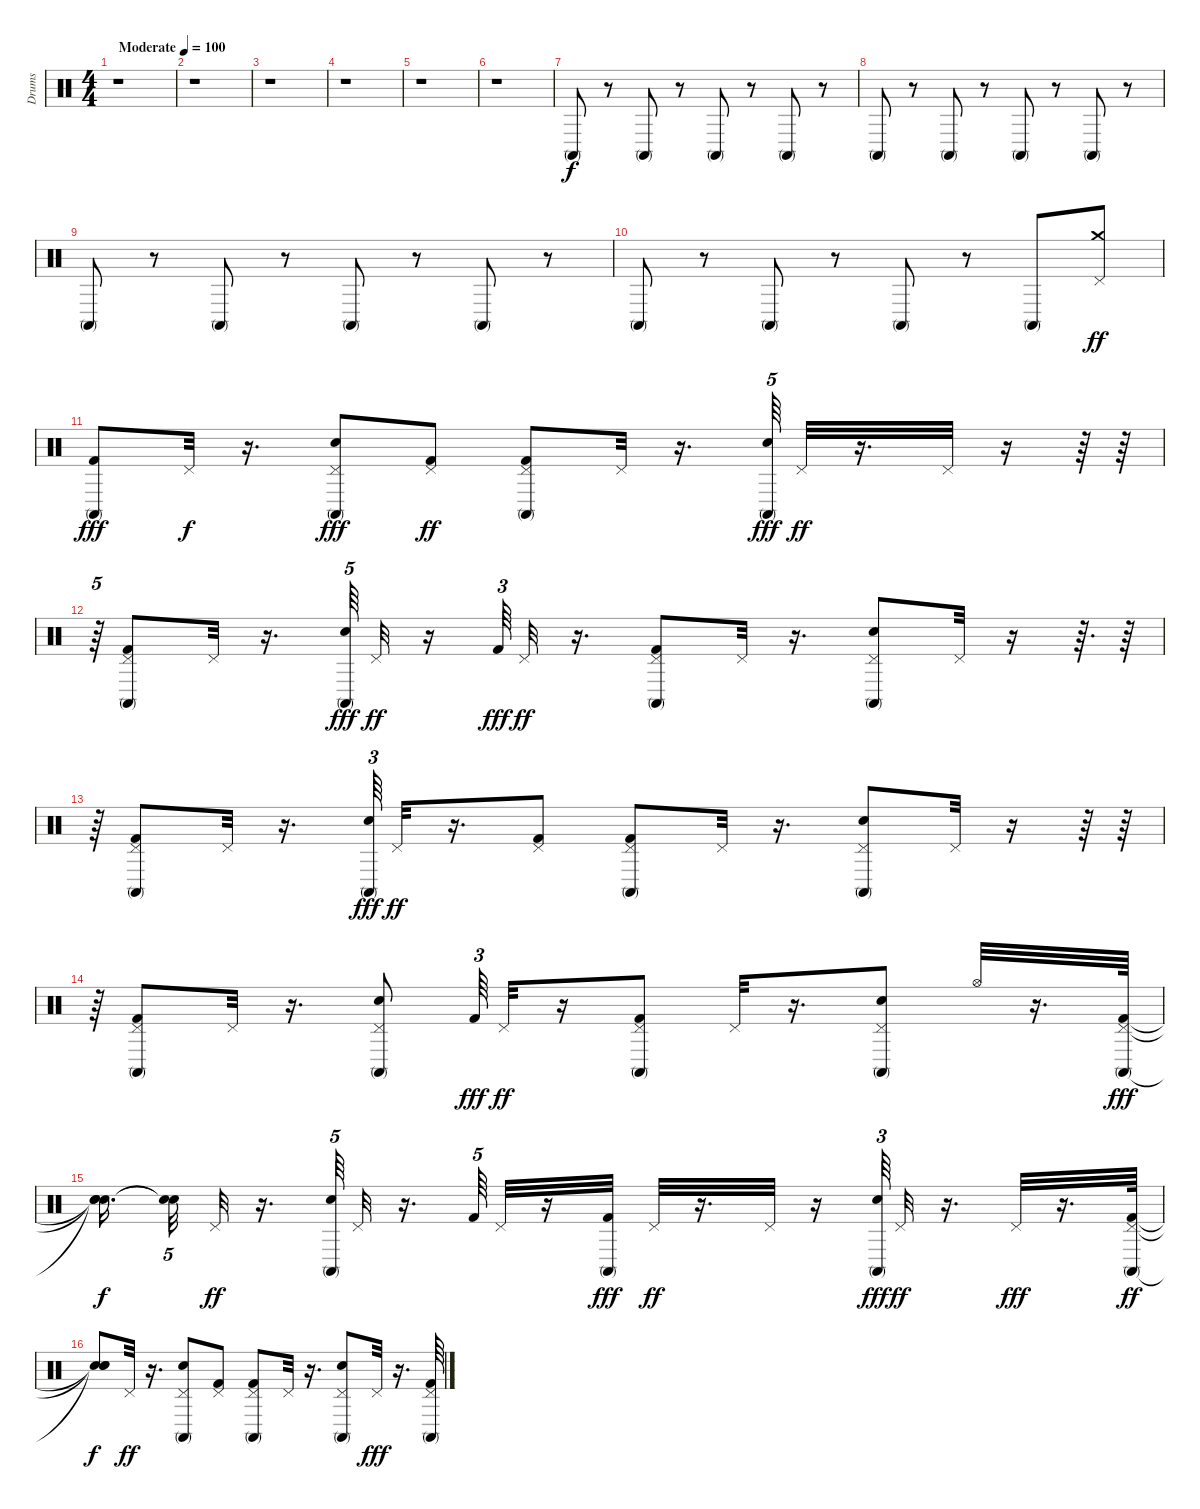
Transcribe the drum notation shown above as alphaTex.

\track ("Drums" "Drums") {instrument percussion}
\staff {score}
\articulation defaults
\ts (4 4)
\tempo (100 "Moderate")
\clef neutral
\ks c
r.1{dy f} |
r.1 |
r.1 |
r.1 |
r.1 |
r.1 |
"Conga high (mute)".8 r.8 "Conga high (mute)".8 r.8 "Conga high (mute)".8 r.8 "Conga high (mute)".8 r.8 |
"Conga high (mute)".8 r.8 "Conga high (mute)".8 r.8 "Conga high (mute)".8 r.8 "Conga high (mute)".8 r.8 |
"Conga high (mute)".8 r.8 "Conga high (mute)".8 r.8 "Conga high (mute)".8 r.8 "Conga high (mute)".8 r.8 |
"Conga high (mute)".8 r.8 "Conga high (mute)".8 r.8 "Conga high (mute)".8 r.8 "Conga high (mute)".8 ("Crash medium (hit)" "Pedal Hi-Hat (hit)").8{dy ff} |
("Conga high (mute)" "Kick (hit) 2").8{dy fff} "Pedal Hi-Hat (hit)".32{dy f} r.16{d} ("Pedal Hi-Hat (hit)" "Snare (hit) 2" "Conga high (mute)").8{dy fff} ("Pedal Hi-Hat (hit)" "Kick (hit) 2").8{dy ff} ("Kick (hit) 2" "Conga high (mute)" "Pedal Hi-Hat (hit)").8 "Pedal Hi-Hat (hit)".32 r.16{d} ("Snare (hit) 2" "Conga high (mute)").64{tu (5 4) dy fff} "Pedal Hi-Hat (hit)".32{dy ff} r.16{d} "Pedal Hi-Hat (hit)".32 r.16 r.64 r.64 |
r.64{tu (5 4)} ("Kick (hit) 2" "Conga high (mute)" "Pedal Hi-Hat (hit)").8 "Pedal Hi-Hat (hit)".32 r.16{d} ("Snare (hit) 2" "Conga high (mute)").64{tu (5 4) dy fff} "Pedal Hi-Hat (hit)".32{dy ff} r.16 "Kick (hit) 2".64{tu (3 2) dy fff} "Pedal Hi-Hat (hit)".32{dy ff} r.16{d} ("Conga high (mute)" "Kick (hit) 2" "Pedal Hi-Hat (hit)").8 "Pedal Hi-Hat (hit)".32 r.16{d} ("Snare (hit) 2" "Conga high (mute)" "Pedal Hi-Hat (hit)").8 "Pedal Hi-Hat (hit)".32 r.16 r.64{d} r.64 |
r.64 ("Conga high (mute)" "Kick (hit) 2" "Pedal Hi-Hat (hit)").8 "Pedal Hi-Hat (hit)".32 r.16{d} ("Snare (hit) 2" "Conga high (mute)").64{tu (3 2) dy fff} "Pedal Hi-Hat (hit)".32{dy ff} r.16{d} ("Kick (hit) 2" "Pedal Hi-Hat (hit)").8 ("Conga high (mute)" "Kick (hit) 2" "Pedal Hi-Hat (hit)").8 "Pedal Hi-Hat (hit)".32 r.16{d} ("Snare (hit) 2" "Conga high (mute)" "Pedal Hi-Hat (hit)").8 "Pedal Hi-Hat (hit)".32 r.16 r.64 r.64 |
r.64 ("Kick (hit) 2" "Conga high (mute)" "Pedal Hi-Hat (hit)").8 "Pedal Hi-Hat (hit)".32 r.16{d} ("Snare (hit) 2" "Conga high (mute)" "Pedal Hi-Hat (hit)").8 "Kick (hit) 2".64{tu (3 2) dy fff} "Pedal Hi-Hat (hit)".32{dy ff} r.16 ("Kick (hit) 2" "Conga high (mute)" "Pedal Hi-Hat (hit)").8 "Pedal Hi-Hat (hit)".32 r.16{d} ("Conga high (mute)" "Snare (hit) 2" "Pedal Hi-Hat (hit)").8 "Hi-Hat (open)".32 r.16{d} ("Pedal Hi-Hat (hit)" "Conga high (mute)" "Kick (hit) 2").64{dy fff} |
("Snare (hit)"{t} "Snare (hit)"{t} "Snare (hit)"{t}).16{d dy f} ("Snare (hit)"{t} "Snare (hit)"{t}).32{tu (5 4)} "Pedal Hi-Hat (hit)".32{dy ff} r.16{d} ("Conga high (mute)" "Snare (hit) 2").64{tu (5 4)} "Pedal Hi-Hat (hit)".32 r.16{d} "Kick (hit) 2".64{tu (5 4)} "Pedal Hi-Hat (hit)".32 r.16 ("Conga high (mute)" "Kick (hit) 2").32{dy fff} "Pedal Hi-Hat (hit)".32{dy ff} r.16{d} "Pedal Hi-Hat (hit)".32 r.16 ("Conga high (mute)" "Snare (hit) 2").64{tu (3 2) dy fff} "Pedal Hi-Hat (hit)".32{dy ff} r.16{d} "Pedal Hi-Hat (hit)".32{dy fff} r.16{d} ("Conga high (mute)" "Kick (hit) 2" "Pedal Hi-Hat (hit)").64{dy ff} |
("Snare (hit)"{t} "Snare (hit)"{t} "Snare (hit)"{t}).8{dy f} "Pedal Hi-Hat (hit)".32{dy ff} r.16{d} ("Conga high (mute)" "Snare (hit) 2" "Pedal Hi-Hat (hit)").8 ("Kick (hit) 2" "Pedal Hi-Hat (hit)").8 ("Conga high (mute)" "Kick (hit) 2" "Pedal Hi-Hat (hit)").8 "Pedal Hi-Hat (hit)".32 r.16{d} ("Conga high (mute)" "Snare (hit) 2" "Pedal Hi-Hat (hit)").8 "Pedal Hi-Hat (hit)".32{dy fff} r.16{d} ("Conga high (mute)" "Kick (hit) 2" "Pedal Hi-Hat (hit)").64
